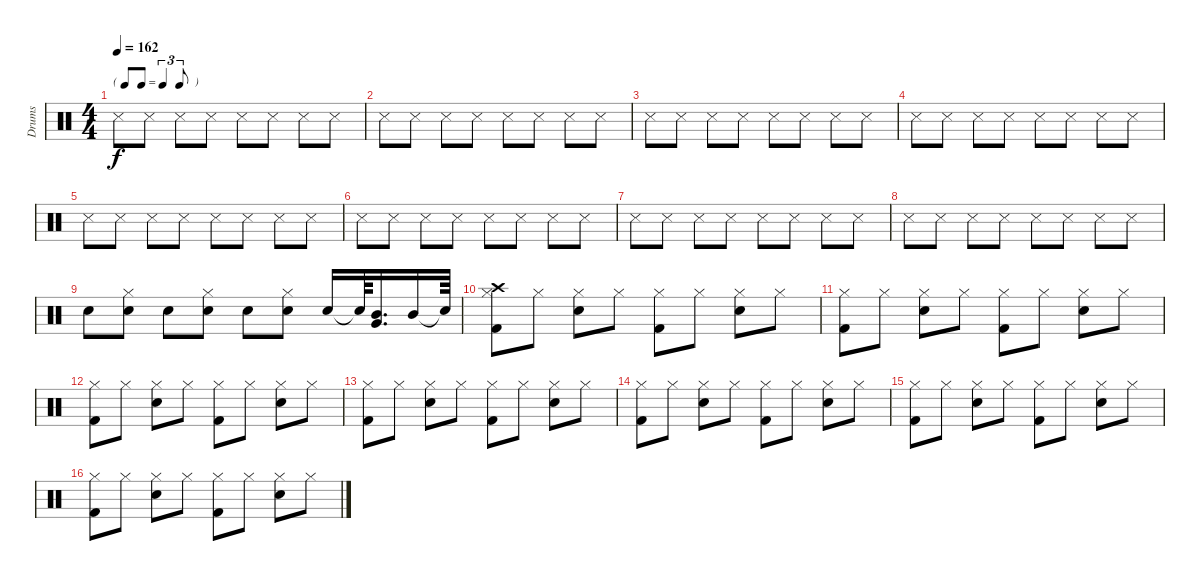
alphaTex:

\track ("Drums" "Drums") {instrument percussion}
\staff {score}
\articulation defaults
\ts (4 4)
\tf triplet8th
\tempo 162
\clef neutral
\ks c "Snare (side stick) 3".8{dy f} "Snare (side stick) 3".8 "Snare (side stick) 3".8 "Snare (side stick) 3".8 "Snare (side stick) 3".8 "Snare (side stick) 3".8 "Snare (side stick) 3".8 "Snare (side stick) 3".8
|
"Snare (side stick) 3".8 "Snare (side stick) 3".8 "Snare (side stick) 3".8 "Snare (side stick) 3".8 "Snare (side stick) 3".8 "Snare (side stick) 3".8 "Snare (side stick) 3".8 "Snare (side stick) 3".8 |
"Snare (side stick) 3".8 "Snare (side stick) 3".8 "Snare (side stick) 3".8 "Snare (side stick) 3".8 "Snare (side stick) 3".8 "Snare (side stick) 3".8 "Snare (side stick) 3".8 "Snare (side stick) 3".8 |
"Snare (side stick) 3".8 "Snare (side stick) 3".8 "Snare (side stick) 3".8 "Snare (side stick) 3".8 "Snare (side stick) 3".8 "Snare (side stick) 3".8 "Snare (side stick) 3".8 "Snare (side stick) 3".8 |
"Snare (side stick) 3".8 "Snare (side stick) 3".8 "Snare (side stick) 3".8 "Snare (side stick) 3".8 "Snare (side stick) 3".8 "Snare (side stick) 3".8 "Snare (side stick) 3".8 "Snare (side stick) 3".8 |
"Snare (side stick) 3".8 "Snare (side stick) 3".8 "Snare (side stick) 3".8 "Snare (side stick) 3".8 "Snare (side stick) 3".8 "Snare (side stick) 3".8 "Snare (side stick) 3".8 "Snare (side stick) 3".8 |
"Snare (side stick) 3".8 "Snare (side stick) 3".8 "Snare (side stick) 3".8 "Snare (side stick) 3".8 "Snare (side stick) 3".8 "Snare (side stick) 3".8 "Snare (side stick) 3".8 "Snare (side stick) 3".8 |
"Snare (side stick) 3".8 "Snare (side stick) 3".8 "Snare (side stick) 3".8 "Snare (side stick) 3".8 "Snare (side stick) 3".8 "Snare (side stick) 3".8 "Snare (side stick) 3".8 "Snare (side stick) 3".8 |
"Snare (hit) 2".8 ("Hi-Hat (closed)" "Snare (hit) 2").8 "Snare (hit) 2".8 ("Hi-Hat (closed)" "Snare (hit) 2").8 "Snare (hit) 2".8 ("Hi-Hat (closed)" "Snare (hit) 2").8 "Snare (hit) 2".16 "Snare (hit)"{t}.64 ("Mid Tom (hit)" "Very Low Tom (hit)").16{d} "Mid Tom (hit)".16 "Snare (hit)"{t}.64 |
("Hi-Hat (closed)" "Crash high (hit)" "Kick (hit) 2").8 "Hi-Hat (closed)".8 ("Hi-Hat (closed)" "Snare (hit) 2").8 "Hi-Hat (closed)".8 ("Hi-Hat (closed)" "Kick (hit) 2").8 "Hi-Hat (closed)".8 ("Hi-Hat (closed)" "Snare (hit) 2").8 "Hi-Hat (closed)".8 |
("Hi-Hat (closed)" "Kick (hit) 2").8 "Hi-Hat (closed)".8 ("Hi-Hat (closed)" "Snare (hit) 2").8 "Hi-Hat (closed)".8 ("Hi-Hat (closed)" "Kick (hit) 2").8 "Hi-Hat (closed)".8 ("Hi-Hat (closed)" "Snare (hit) 2").8 "Hi-Hat (closed)".8 |
("Hi-Hat (closed)" "Kick (hit) 2").8 "Hi-Hat (closed)".8 ("Hi-Hat (closed)" "Snare (hit) 2").8 "Hi-Hat (closed)".8 ("Hi-Hat (closed)" "Kick (hit) 2").8 "Hi-Hat (closed)".8 ("Hi-Hat (closed)" "Snare (hit) 2").8 "Hi-Hat (closed)".8 |
("Hi-Hat (closed)" "Kick (hit) 2").8 "Hi-Hat (closed)".8 ("Hi-Hat (closed)" "Snare (hit) 2").8 "Hi-Hat (closed)".8 ("Hi-Hat (closed)" "Kick (hit) 2").8 "Hi-Hat (closed)".8 ("Hi-Hat (closed)" "Snare (hit) 2").8 "Hi-Hat (closed)".8 |
("Hi-Hat (closed)" "Kick (hit) 2").8 "Hi-Hat (closed)".8 ("Hi-Hat (closed)" "Snare (hit) 2").8 "Hi-Hat (closed)".8 ("Hi-Hat (closed)" "Kick (hit) 2").8 "Hi-Hat (closed)".8 ("Hi-Hat (closed)" "Snare (hit) 2").8 "Hi-Hat (closed)".8 |
("Hi-Hat (closed)" "Kick (hit) 2").8 "Hi-Hat (closed)".8 ("Hi-Hat (closed)" "Snare (hit) 2").8 "Hi-Hat (closed)".8 ("Hi-Hat (closed)" "Kick (hit) 2").8 "Hi-Hat (closed)".8 ("Hi-Hat (closed)" "Snare (hit) 2").8 "Hi-Hat (closed)".8 |
("Hi-Hat (closed)" "Kick (hit) 2").8 "Hi-Hat (closed)".8 ("Hi-Hat (closed)" "Snare (hit) 2").8 "Hi-Hat (closed)".8 ("Hi-Hat (closed)" "Kick (hit) 2").8 "Hi-Hat (closed)".8 ("Hi-Hat (closed)" "Snare (hit) 2").8 "Hi-Hat (closed)".8
